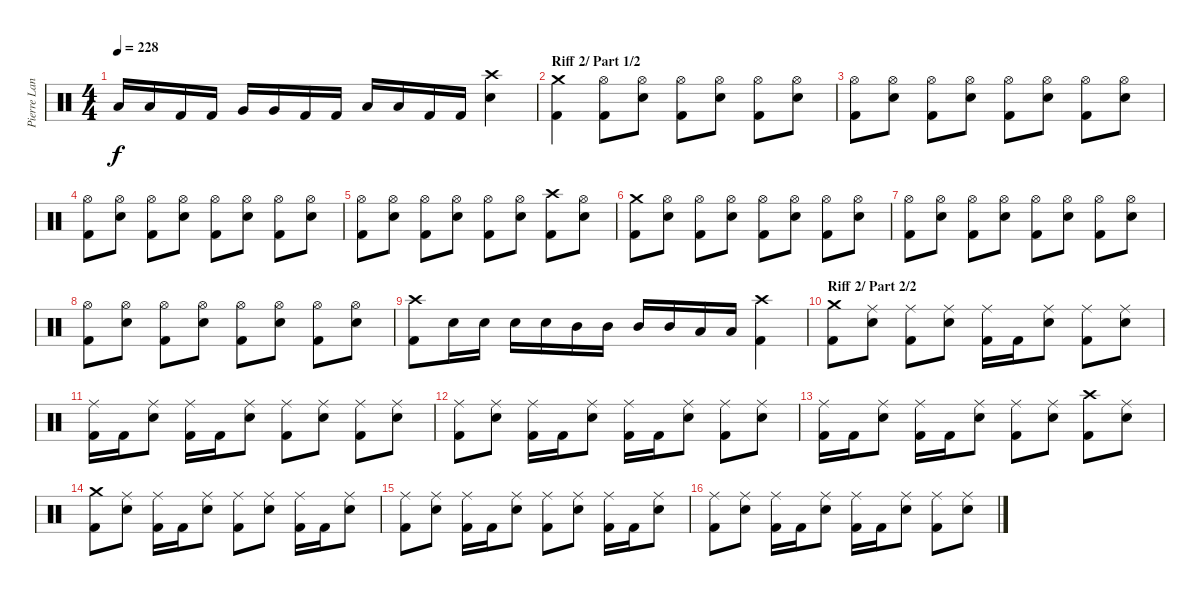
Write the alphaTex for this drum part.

\track ("Pierre Langlois (Drums)" "Pierre Lan") {instrument percussion}
\staff {score}
\articulation defaults
\ts (4 4)
\tempo 228
\clef neutral
\ks c "Low Tom (hit)".16{dy f} "Low Tom (hit)".16 "Kick (hit) 2".16 "Kick (hit) 2".16 "Very Low Tom (hit)".16 "Very Low Tom (hit)".16 "Kick (hit) 2".16 "Kick (hit) 2".16 "Low Floor Tom (hit)".16 "Low Floor Tom (hit)".16 "Kick (hit) 2".16 "Kick (hit) 2".16
("Crash high (hit)" "Snare (hit) 2").4 |
\section ("" "Riff 2/ Part 1/2")
("Crash medium (hit)" "Kick (hit) 2").4 ("Hi-Hat (open)" "Kick (hit) 2").8 ("Hi-Hat (open)" "Snare (hit) 2").8 ("Hi-Hat (open)" "Kick (hit) 2").8 ("Hi-Hat (open)" "Snare (hit) 2").8 ("Hi-Hat (open)" "Kick (hit) 2").8 ("Hi-Hat (open)" "Snare (hit) 2").8 |
("Hi-Hat (open)" "Kick (hit) 2").8 ("Hi-Hat (open)" "Snare (hit) 2").8 ("Hi-Hat (open)" "Kick (hit) 2").8 ("Hi-Hat (open)" "Snare (hit) 2").8 ("Hi-Hat (open)" "Kick (hit) 2").8 ("Hi-Hat (open)" "Snare (hit) 2").8 ("Hi-Hat (open)" "Kick (hit) 2").8 ("Hi-Hat (open)" "Snare (hit) 2").8 |
("Hi-Hat (open)" "Kick (hit) 2").8 ("Hi-Hat (open)" "Snare (hit) 2").8 ("Hi-Hat (open)" "Kick (hit) 2").8 ("Hi-Hat (open)" "Snare (hit) 2").8 ("Hi-Hat (open)" "Kick (hit) 2").8 ("Hi-Hat (open)" "Snare (hit) 2").8 ("Hi-Hat (open)" "Kick (hit) 2").8 ("Hi-Hat (open)" "Snare (hit) 2").8 |
("Hi-Hat (open)" "Kick (hit) 2").8 ("Hi-Hat (open)" "Snare (hit) 2").8 ("Hi-Hat (open)" "Kick (hit) 2").8 ("Hi-Hat (open)" "Snare (hit) 2").8 ("Hi-Hat (open)" "Kick (hit) 2").8 ("Hi-Hat (open)" "Snare (hit) 2").8 ("Crash high (hit)" "Kick (hit) 2").8 ("Hi-Hat (open)" "Snare (hit) 2").8 |
("Crash medium (hit)" "Kick (hit) 2").8 ("Hi-Hat (open)" "Snare (hit) 2").8 ("Hi-Hat (open)" "Kick (hit) 2").8 ("Hi-Hat (open)" "Snare (hit) 2").8 ("Hi-Hat (open)" "Kick (hit) 2").8 ("Hi-Hat (open)" "Snare (hit) 2").8 ("Hi-Hat (open)" "Kick (hit) 2").8 ("Hi-Hat (open)" "Snare (hit) 2").8 |
("Hi-Hat (open)" "Kick (hit) 2").8 ("Hi-Hat (open)" "Snare (hit) 2").8 ("Hi-Hat (open)" "Kick (hit) 2").8 ("Hi-Hat (open)" "Snare (hit) 2").8 ("Hi-Hat (open)" "Kick (hit) 2").8 ("Hi-Hat (open)" "Snare (hit) 2").8 ("Hi-Hat (open)" "Kick (hit) 2").8 ("Hi-Hat (open)" "Snare (hit) 2").8 |
("Hi-Hat (open)" "Kick (hit) 2").8 ("Hi-Hat (open)" "Snare (hit) 2").8 ("Hi-Hat (open)" "Kick (hit) 2").8 ("Hi-Hat (open)" "Snare (hit) 2").8 ("Hi-Hat (open)" "Kick (hit) 2").8 ("Hi-Hat (open)" "Snare (hit) 2").8 ("Hi-Hat (open)" "Kick (hit) 2").8 ("Hi-Hat (open)" "Snare (hit) 2").8 |
("Crash high (hit)" "Kick (hit) 2").8 "Snare (hit) 2".16 "Snare (hit) 2".16 "Snare (hit) 2".16 "Snare (hit) 2".16 "Mid Tom (hit)".16 "Mid Tom (hit)".16 "Mid Tom (hit)".16 "Mid Tom (hit)".16 "Low Tom (hit)".16 "Low Tom (hit)".16 ("Crash high (hit)" "Kick (hit) 2").4 |
\section ("" "Riff 2/ Part 2/2")
("Crash medium (hit)" "Kick (hit) 2").8 ("Ride (middle)" "Snare (hit) 2").8 ("Ride (middle)" "Kick (hit) 2").8 ("Ride (middle)" "Snare (hit) 2").8 ("Ride (middle)" "Kick (hit) 2").16 "Kick (hit) 2".16 ("Ride (middle)" "Snare (hit) 2").8 ("Ride (middle)" "Kick (hit) 2").8 ("Ride (middle)" "Snare (hit) 2").8 |
("Ride (middle)" "Kick (hit) 2").16 "Kick (hit) 2".16 ("Ride (middle)" "Snare (hit) 2").8 ("Ride (middle)" "Kick (hit) 2").16 "Kick (hit) 2".16 ("Ride (middle)" "Snare (hit) 2").8 ("Ride (middle)" "Kick (hit) 2").8 ("Ride (middle)" "Snare (hit) 2").8 ("Ride (middle)" "Kick (hit) 2").8 ("Ride (middle)" "Snare (hit) 2").8 |
("Ride (middle)" "Kick (hit) 2").8 ("Ride (middle)" "Snare (hit) 2").8 ("Ride (middle)" "Kick (hit) 2").16 "Kick (hit) 2".16 ("Ride (middle)" "Snare (hit) 2").8 ("Ride (middle)" "Kick (hit) 2").16 "Kick (hit) 2".16 ("Ride (middle)" "Snare (hit) 2").8 ("Ride (middle)" "Kick (hit) 2").8 ("Ride (middle)" "Snare (hit) 2").8 |
("Ride (middle)" "Kick (hit) 2").16 "Kick (hit) 2".16 ("Ride (middle)" "Snare (hit) 2").8 ("Ride (middle)" "Kick (hit) 2").16 "Kick (hit) 2".16 ("Ride (middle)" "Snare (hit) 2").8 ("Ride (middle)" "Kick (hit) 2").8 ("Ride (middle)" "Snare (hit) 2").8 ("Crash high (hit)" "Kick (hit) 2").8 ("Ride (middle)" "Snare (hit) 2").8 |
("Crash medium (hit)" "Kick (hit) 2").8 ("Ride (middle)" "Snare (hit) 2").8 ("Ride (middle)" "Kick (hit) 2").16 "Kick (hit) 2".16 ("Ride (middle)" "Snare (hit) 2").8 ("Ride (middle)" "Kick (hit) 2").8 ("Ride (middle)" "Snare (hit) 2").8 ("Ride (middle)" "Kick (hit) 2").16 "Kick (hit) 2".16 ("Ride (middle)" "Snare (hit) 2").8 |
("Ride (middle)" "Kick (hit) 2").8 ("Ride (middle)" "Snare (hit) 2").8 ("Ride (middle)" "Kick (hit) 2").16 "Kick (hit) 2".16 ("Ride (middle)" "Snare (hit) 2").8 ("Ride (middle)" "Kick (hit) 2").8 ("Ride (middle)" "Snare (hit) 2").8 ("Ride (middle)" "Kick (hit) 2").16 "Kick (hit) 2".16 ("Ride (middle)" "Snare (hit) 2").8 |
("Ride (middle)" "Kick (hit) 2").8 ("Ride (middle)" "Snare (hit) 2").8 ("Ride (middle)" "Kick (hit) 2").16 "Kick (hit) 2".16 ("Ride (middle)" "Snare (hit) 2").8 ("Ride (middle)" "Kick (hit) 2").16 "Kick (hit) 2".16 ("Ride (middle)" "Snare (hit) 2").8 ("Ride (middle)" "Kick (hit) 2").8 ("Ride (middle)" "Snare (hit) 2").8
